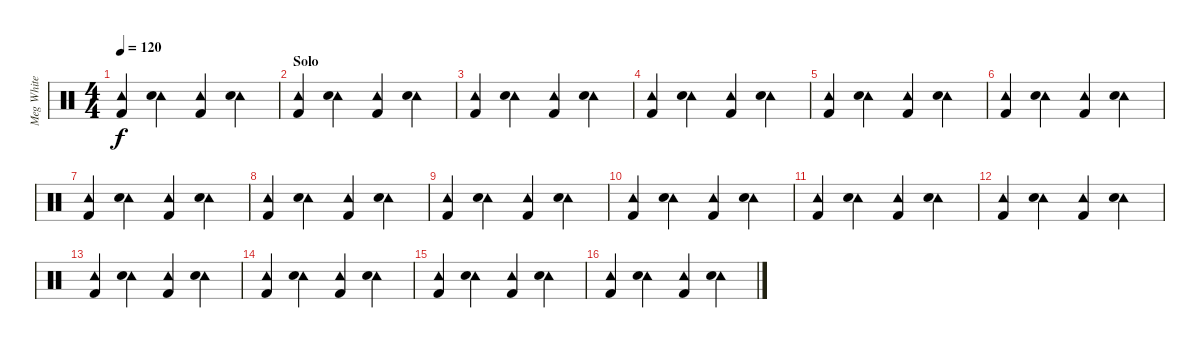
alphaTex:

\track ("Meg White" "Meg White") {instrument percussion}
\staff {score}
\articulation defaults
\ts (4 4)
\tempo 120
\clef neutral
\ks c
("Tambourine (hit)" "Kick (hit) 2").4{dy f} ("Tambourine (hit)" "Electric Snare (hit)").4 ("Tambourine (hit)" "Kick (hit) 2").4 ("Tambourine (hit)" "Electric Snare (hit)").4 |
\section ("" "Solo")
("Tambourine (hit)" "Kick (hit) 2").4 ("Tambourine (hit)" "Electric Snare (hit)").4 ("Tambourine (hit)" "Kick (hit) 2").4 ("Tambourine (hit)" "Electric Snare (hit)").4 |
("Tambourine (hit)" "Kick (hit) 2").4 ("Tambourine (hit)" "Electric Snare (hit)").4 ("Tambourine (hit)" "Kick (hit) 2").4 ("Tambourine (hit)" "Electric Snare (hit)").4 |
("Tambourine (hit)" "Kick (hit) 2").4 ("Tambourine (hit)" "Electric Snare (hit)").4 ("Tambourine (hit)" "Kick (hit) 2").4 ("Tambourine (hit)" "Electric Snare (hit)").4 |
("Tambourine (hit)" "Kick (hit) 2").4 ("Tambourine (hit)" "Electric Snare (hit)").4 ("Tambourine (hit)" "Kick (hit) 2").4 ("Tambourine (hit)" "Electric Snare (hit)").4 |
("Tambourine (hit)" "Kick (hit) 2").4 ("Tambourine (hit)" "Electric Snare (hit)").4 ("Tambourine (hit)" "Kick (hit) 2").4 ("Tambourine (hit)" "Electric Snare (hit)").4 |
("Tambourine (hit)" "Kick (hit) 2").4 ("Tambourine (hit)" "Electric Snare (hit)").4 ("Tambourine (hit)" "Kick (hit) 2").4 ("Tambourine (hit)" "Electric Snare (hit)").4 |
("Tambourine (hit)" "Kick (hit) 2").4 ("Tambourine (hit)" "Electric Snare (hit)").4 ("Tambourine (hit)" "Kick (hit) 2").4 ("Tambourine (hit)" "Electric Snare (hit)").4 |
("Tambourine (hit)" "Kick (hit) 2").4 ("Tambourine (hit)" "Electric Snare (hit)").4 ("Tambourine (hit)" "Kick (hit) 2").4 ("Tambourine (hit)" "Electric Snare (hit)").4 |
("Tambourine (hit)" "Kick (hit) 2").4 ("Tambourine (hit)" "Electric Snare (hit)").4 ("Tambourine (hit)" "Kick (hit) 2").4 ("Tambourine (hit)" "Electric Snare (hit)").4 |
("Tambourine (hit)" "Kick (hit) 2").4 ("Tambourine (hit)" "Electric Snare (hit)").4 ("Tambourine (hit)" "Kick (hit) 2").4 ("Tambourine (hit)" "Electric Snare (hit)").4 |
("Tambourine (hit)" "Kick (hit) 2").4 ("Tambourine (hit)" "Electric Snare (hit)").4 ("Tambourine (hit)" "Kick (hit) 2").4 ("Tambourine (hit)" "Electric Snare (hit)").4 |
("Tambourine (hit)" "Kick (hit) 2").4 ("Tambourine (hit)" "Electric Snare (hit)").4 ("Tambourine (hit)" "Kick (hit) 2").4 ("Tambourine (hit)" "Electric Snare (hit)").4 |
("Tambourine (hit)" "Kick (hit) 2").4 ("Tambourine (hit)" "Electric Snare (hit)").4 ("Tambourine (hit)" "Kick (hit) 2").4 ("Tambourine (hit)" "Electric Snare (hit)").4 |
("Tambourine (hit)" "Kick (hit) 2").4 ("Tambourine (hit)" "Electric Snare (hit)").4 ("Tambourine (hit)" "Kick (hit) 2").4 ("Tambourine (hit)" "Electric Snare (hit)").4 |
("Tambourine (hit)" "Kick (hit) 2").4 ("Tambourine (hit)" "Electric Snare (hit)").4 ("Tambourine (hit)" "Kick (hit) 2").4 ("Tambourine (hit)" "Electric Snare (hit)").4
